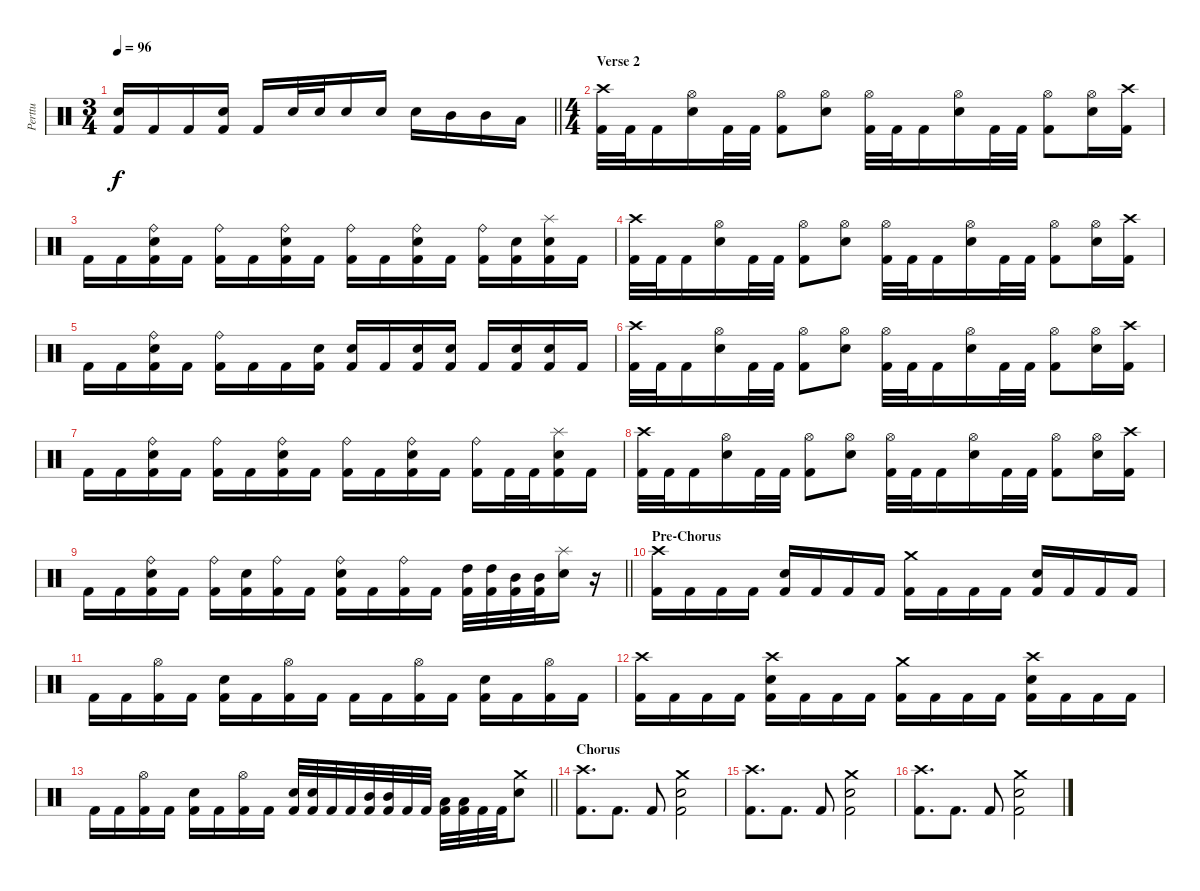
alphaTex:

\track ("Perttu" "Perttu") {instrument percussion}
\staff {score}
\articulation defaults
\ts (3 4)
\tempo 96
\clef neutral
\barLineRight lightlight
\ks c
("Electric Snare (hit)" "Kick (hit) 2").16{dy f} "Kick (hit) 2".16 "Kick (hit) 2".16 ("Electric Snare (hit)" "Kick (hit) 2").16 "Kick (hit) 2".16 "Electric Snare (hit)".32 "Electric Snare (hit)".32 "Electric Snare (hit)".16 "Electric Snare (hit)".16 "Electric Snare (hit)".16 "Mid Tom (hit)".16 "Mid Tom (hit)".16 "Low Tom (hit)".16 |
\ts (4 4)
\section ("" "Verse 2")
("Crash high (hit)" "Kick (hit) 2").32 "Kick (hit) 2".32 "Kick (hit) 2".16 ("Hi-Hat (open)" "Electric Snare (hit)").16 "Kick (hit) 2".32 "Kick (hit) 2".32 ("Hi-Hat (open)" "Kick (hit) 2").8 ("Hi-Hat (open)" "Electric Snare (hit)").8 ("Hi-Hat (open)" "Kick (hit) 2").32 "Kick (hit) 2".32 "Kick (hit) 2".16 ("Hi-Hat (open)" "Electric Snare (hit)").16 "Kick (hit) 2".32 "Kick (hit) 2".32 ("Hi-Hat (open)" "Kick (hit) 2").8 ("Hi-Hat (open)" "Electric Snare (hit)").16 ("Crash high (hit)" "Kick (hit) 2").16 |
"Kick (hit) 2".16 "Kick (hit) 2".16 ("Ride (bell)" "Electric Snare (hit)" "Kick (hit) 2").16 "Kick (hit) 2".16 ("Ride (bell)" "Kick (hit) 2").16 "Kick (hit) 2".16 ("Ride (bell)" "Electric Snare (hit)" "Kick (hit) 2").16 "Kick (hit) 2".16 ("Ride (bell)" "Kick (hit) 2").16 "Kick (hit) 2".16 ("Ride (bell)" "Electric Snare (hit)" "Kick (hit) 2").16 "Kick (hit) 2".16 ("Ride (bell)" "Kick (hit) 2").16 ("Electric Snare (hit)" "Kick (hit) 2").16 ("Splash (hit)" "Electric Snare (hit)" "Kick (hit) 2").16 "Kick (hit) 2".16 |
("Crash high (hit)" "Kick (hit) 2").32 "Kick (hit) 2".32 "Kick (hit) 2".16 ("Hi-Hat (open)" "Electric Snare (hit)").16 "Kick (hit) 2".32 "Kick (hit) 2".32 ("Hi-Hat (open)" "Kick (hit) 2").8 ("Hi-Hat (open)" "Electric Snare (hit)").8 ("Hi-Hat (open)" "Kick (hit) 2").32 "Kick (hit) 2".32 "Kick (hit) 2".16 ("Hi-Hat (open)" "Electric Snare (hit)").16 "Kick (hit) 2".32 "Kick (hit) 2".32 ("Hi-Hat (open)" "Kick (hit) 2").8 ("Hi-Hat (open)" "Electric Snare (hit)").16 ("Crash high (hit)" "Kick (hit) 2").16 |
"Kick (hit) 2".16 "Kick (hit) 2".16 ("Ride (bell)" "Electric Snare (hit)" "Kick (hit) 2").16 "Kick (hit) 2".16 ("Ride (bell)" "Kick (hit) 2").16 "Kick (hit) 2".16 "Kick (hit) 2".16 ("Electric Snare (hit)" "Kick (hit) 2").16 ("Electric Snare (hit)" "Kick (hit) 2").16 "Kick (hit) 2".16 ("Electric Snare (hit)" "Kick (hit) 2").16 ("Electric Snare (hit)" "Kick (hit) 2").16 "Kick (hit) 2".16 ("Electric Snare (hit)" "Kick (hit) 2").16 ("Electric Snare (hit)" "Kick (hit) 2").16 "Kick (hit) 2".16 |
("Crash high (hit)" "Kick (hit) 2").32 "Kick (hit) 2".32 "Kick (hit) 2".16 ("Hi-Hat (open)" "Electric Snare (hit)").16 "Kick (hit) 2".32 "Kick (hit) 2".32 ("Hi-Hat (open)" "Kick (hit) 2").8 ("Hi-Hat (open)" "Electric Snare (hit)").8 ("Hi-Hat (open)" "Kick (hit) 2").32 "Kick (hit) 2".32 "Kick (hit) 2".16 ("Hi-Hat (open)" "Electric Snare (hit)").16 "Kick (hit) 2".32 "Kick (hit) 2".32 ("Hi-Hat (open)" "Kick (hit) 2").8 ("Hi-Hat (open)" "Electric Snare (hit)").16 ("Crash high (hit)" "Kick (hit) 2").16 |
"Kick (hit) 2".16 "Kick (hit) 2".16 ("Ride (bell)" "Electric Snare (hit)" "Kick (hit) 2").16 "Kick (hit) 2".16 ("Ride (bell)" "Kick (hit) 2").16 "Kick (hit) 2".16 ("Ride (bell)" "Electric Snare (hit)" "Kick (hit) 2").16 "Kick (hit) 2".16 ("Ride (bell)" "Kick (hit) 2").16 "Kick (hit) 2".16 ("Ride (bell)" "Electric Snare (hit)" "Kick (hit) 2").16 "Kick (hit) 2".16 ("Ride (bell)" "Kick (hit) 2").16 "Kick (hit) 2".32 "Kick (hit) 2".32 ("Splash (hit)" "Electric Snare (hit)" "Kick (hit) 2").16 "Kick (hit) 2".16 |
("Crash high (hit)" "Kick (hit) 2").32 "Kick (hit) 2".32 "Kick (hit) 2".16 ("Hi-Hat (open)" "Electric Snare (hit)").16 "Kick (hit) 2".32 "Kick (hit) 2".32 ("Hi-Hat (open)" "Kick (hit) 2").8 ("Hi-Hat (open)" "Electric Snare (hit)").8 ("Hi-Hat (open)" "Kick (hit) 2").32 "Kick (hit) 2".32 "Kick (hit) 2".16 ("Hi-Hat (open)" "Electric Snare (hit)").16 "Kick (hit) 2".32 "Kick (hit) 2".32 ("Hi-Hat (open)" "Kick (hit) 2").8 ("Hi-Hat (open)" "Electric Snare (hit)").16 ("Crash high (hit)" "Kick (hit) 2").16 |
\barLineRight lightlight "Kick (hit) 2".16 "Kick (hit) 2".16
("Ride (bell)" "Electric Snare (hit)" "Kick (hit) 2").16 "Kick (hit) 2".16 ("Ride (bell)" "Kick (hit) 2").16 ("Electric Snare (hit)" "Kick (hit) 2").16 ("Ride (bell)" "Kick (hit) 2").16 "Kick (hit) 2".16 ("Ride (bell)" "Electric Snare (hit)" "Kick (hit) 2").16 "Kick (hit) 2".16 ("Ride (bell)" "Kick (hit) 2").16 "Kick (hit) 2".16 ("High Tom (hit)" "Kick (hit) 2").32 ("High Tom (hit)" "Kick (hit) 2").32 ("Mid Tom (hit)" "Kick (hit) 2").32 ("Mid Tom (hit)" "Kick (hit) 2").32 ("Splash (hit)" "Electric Snare (hit)").16 r.16 |
\section ("" "Pre-Chorus")
("Crash high (hit)" "Kick (hit) 2").16 "Kick (hit) 2".16 "Kick (hit) 2".16 "Kick (hit) 2".16 ("Electric Snare (hit)" "Kick (hit) 2").16 "Kick (hit) 2".16 "Kick (hit) 2".16 "Kick (hit) 2".16 ("Crash medium (hit)" "Kick (hit) 2").16 "Kick (hit) 2".16 "Kick (hit) 2".16 "Kick (hit) 2".16 ("Electric Snare (hit)" "Kick (hit) 2").16 "Kick (hit) 2".16 "Kick (hit) 2".16 "Kick (hit) 2".16 |
"Kick (hit) 2".16 "Kick (hit) 2".16 ("Hi-Hat (open)" "Kick (hit) 2").16 "Kick (hit) 2".16 ("Electric Snare (hit)" "Kick (hit) 2").16 "Kick (hit) 2".16 ("Hi-Hat (open)" "Kick (hit) 2").16 "Kick (hit) 2".16 "Kick (hit) 2".16 "Kick (hit) 2".16 ("Hi-Hat (open)" "Kick (hit) 2").16 "Kick (hit) 2".16 ("Electric Snare (hit)" "Kick (hit) 2").16 "Kick (hit) 2".16 ("Hi-Hat (open)" "Kick (hit) 2").16 "Kick (hit) 2".16 |
("Crash high (hit)" "Kick (hit) 2").16 "Kick (hit) 2".16 "Kick (hit) 2".16 "Kick (hit) 2".16 ("Crash high (hit)" "Electric Snare (hit)" "Kick (hit) 2").16 "Kick (hit) 2".16 "Kick (hit) 2".16 "Kick (hit) 2".16 ("Crash medium (hit)" "Kick (hit) 2").16 "Kick (hit) 2".16 "Kick (hit) 2".16 "Kick (hit) 2".16 ("Crash high (hit)" "Electric Snare (hit)" "Kick (hit) 2").16 "Kick (hit) 2".16 "Kick (hit) 2".16 "Kick (hit) 2".16 |
\barLineRight lightlight "Kick (hit) 2".16 "Kick (hit) 2".16
("Hi-Hat (open)" "Kick (hit) 2").16 "Kick (hit) 2".16 ("Electric Snare (hit)" "Kick (hit) 2").16 "Kick (hit) 2".16 ("Hi-Hat (open)" "Kick (hit) 2").16 "Kick (hit) 2".16 ("Electric Snare (hit)" "Kick (hit) 2").32 ("Electric Snare (hit)" "Kick (hit) 2").32 "Kick (hit) 2".32 "Kick (hit) 2".32 ("Mid Tom (hit)" "Kick (hit) 2").32 ("Mid Tom (hit)" "Kick (hit) 2").32 "Kick (hit) 2".32 "Kick (hit) 2".32 ("Low Tom (hit)" "Kick (hit) 2").32 ("Low Tom (hit)" "Kick (hit) 2").32 "Kick (hit) 2".32 "Kick (hit) 2".32 ("Crash medium (hit)" "Electric Snare (hit)").8 |
\section ("" "Chorus")
("Crash high (hit)" "Kick (hit) 2").8{d} "Kick (hit) 2".8{d} "Kick (hit) 2".8 ("Crash medium (hit)" "Electric Snare (hit)" "Kick (hit) 2").2 |
("Crash high (hit)" "Kick (hit) 2").8{d} "Kick (hit) 2".8{d} "Kick (hit) 2".8 ("Crash medium (hit)" "Electric Snare (hit)" "Kick (hit) 2").2 |
("Crash high (hit)" "Kick (hit) 2").8{d} "Kick (hit) 2".8{d} "Kick (hit) 2".8 ("Crash medium (hit)" "Electric Snare (hit)" "Kick (hit) 2").2
